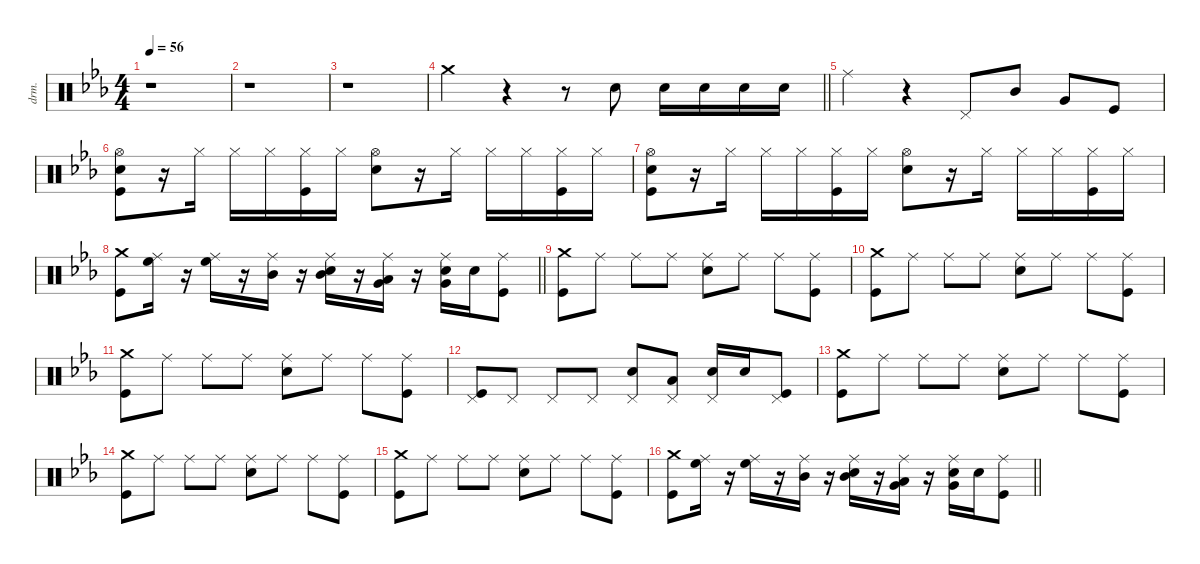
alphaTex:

\defaultSystemsLayout 4
\hideDynamics
\bracketExtendMode groupsimilarinstruments
\otherSystemsTrackNameOrientation horizontal
\track ("Percussion" "drm.") {instrument percussion}
\staff {score}
\articulation defaults
\ts (4 4)
\tempo 56
\clef neutral
\ks cminor
r.1{dy f beam Down} |
r.1{beam Down} |
r.1{beam Down} |
\barLineRight lightlight "Crash medium (hit)"{acc forcenatural}.4{beam Down}
r.4{beam Down} r.8{beam Down} "Snare (hit) 2"{acc forcenatural}.8{beam Down} "Snare (hit) 2"{acc forcenatural}.16{beam Down} "Snare (hit) 2"{acc forcenatural}.16{beam Down} "Snare (hit) 2"{acc forcenatural}.16{beam Down} "Snare (hit) 2"{acc forcenatural}.16{beam Down} |
"Ride (middle)"{acc forcenatural}.4{beam Down} r.4{beam Down} "Pedal Hi-Hat (hit)"{acc forcenatural}.8{beam Up} "Mid Tom (hit)"{acc forcenatural}.8{beam Up} "Very Low Tom (hit)"{acc forcenatural}.8{beam Up} "Kick (hit)"{acc forcenatural}.8{beam Up} |
("Hi-Hat (open)"{acc forcenatural} "Kick (hit)"{acc forcenatural} "Snare (hit) 2"{acc forcenatural}).8{beam Down} r.16{beam Down} "Hi-Hat (closed)"{acc forcenatural}.16{beam Down} "Hi-Hat (closed)"{acc forcenatural}.16{beam Down} "Hi-Hat (closed)"{acc forcenatural}.16{beam Down} ("Kick (hit)"{acc forcenatural} "Hi-Hat (closed)"{acc forcenatural}).16{beam Down} "Hi-Hat (closed)"{acc forcenatural}.16{beam Down} ("Snare (hit) 2"{acc forcenatural} "Hi-Hat (open)"{acc forcenatural}).8{beam Down} r.16{beam Down} "Hi-Hat (closed)"{acc forcenatural}.16{beam Down} "Hi-Hat (closed)"{acc forcenatural}.16{beam Down} "Hi-Hat (closed)"{acc forcenatural}.16{beam Down} ("Kick (hit)"{acc forcenatural} "Hi-Hat (closed)"{acc forcenatural}).16{beam Down} "Hi-Hat (closed)"{acc forcenatural}.16{beam Down} |
("Hi-Hat (open)"{acc forcenatural} "Kick (hit)"{acc forcenatural} "Snare (hit) 2"{acc forcenatural}).8{beam Down} r.16{beam Down} "Hi-Hat (closed)"{acc forcenatural}.16{beam Down} "Hi-Hat (closed)"{acc forcenatural}.16{beam Down} "Hi-Hat (closed)"{acc forcenatural}.16{beam Down} ("Kick (hit)"{acc forcenatural} "Hi-Hat (closed)"{acc forcenatural}).16{beam Down} "Hi-Hat (closed)"{acc forcenatural}.16{beam Down} ("Snare (hit) 2"{acc forcenatural} "Hi-Hat (open)"{acc forcenatural}).8{beam Down} r.16{beam Down} "Hi-Hat (closed)"{acc forcenatural}.16{beam Down} "Hi-Hat (closed)"{acc forcenatural}.16{beam Down} "Hi-Hat (closed)"{acc forcenatural}.16{beam Down} ("Kick (hit)"{acc forcenatural} "Hi-Hat (closed)"{acc forcenatural}).16{beam Down} "Hi-Hat (closed)"{acc forcenatural}.16{beam Down} |
\barLineRight lightlight
("Crash medium (hit)"{acc forcenatural} "Kick (hit)"{acc forcenatural}).8{beam Down} ("High Floor Tom (hit)"{acc forcenatural} "Ride (middle)"{acc forcenatural}).16{beam Down} r.16{beam Down} ("High Floor Tom (hit)"{acc forcenatural} "Ride (middle)"{acc forcenatural}).16{beam Down} r.16{beam Down} ("Mid Tom (hit)"{acc forcenatural} "Ride (middle)"{acc forcenatural}).16{beam Down} r.16{beam Down} ("Mid Tom (hit)"{acc forcenatural} "Snare (hit) 2"{acc forcenatural} "Ride (middle)"{acc forcenatural}).16{beam Down} r.16{beam Down} ("Very Low Tom (hit)"{acc forcenatural} "Low Floor Tom (hit)"{acc forcenatural} "Ride (middle)"{acc forcenatural}).16{beam Down} r.16{beam Down} ("Very Low Tom (hit)"{acc forcenatural} "Snare (hit) 2"{acc forcenatural} "Ride (middle)"{acc forcenatural}).16{beam Down} "Snare (hit) 2"{acc forcenatural}.16{beam Down} ("Kick (hit)"{acc forcenatural} "Ride (middle)"{acc forcenatural}).8{beam Down} |
("Crash medium (hit)"{acc forcenatural} "Kick (hit)"{acc forcenatural}).8{beam Down} "Ride (middle)"{acc forcenatural}.8{beam Down} "Ride (middle)"{acc forcenatural}.8{beam Down} "Ride (middle)"{acc forcenatural}.8{beam Down} ("Snare (hit) 2"{acc forcenatural} "Ride (middle)"{acc forcenatural}).8{beam Down} "Ride (middle)"{acc forcenatural}.8{beam Down} "Ride (middle)"{acc forcenatural}.8{beam Down} ("Kick (hit)"{acc forcenatural} "Ride (middle)"{acc forcenatural}).8{beam Down} |
("Crash medium (hit)"{acc forcenatural} "Kick (hit)"{acc forcenatural}).8{beam Down} "Ride (middle)"{acc forcenatural}.8{beam Down} "Ride (middle)"{acc forcenatural}.8{beam Down} "Ride (middle)"{acc forcenatural}.8{beam Down} ("Snare (hit) 2"{acc forcenatural} "Ride (middle)"{acc forcenatural}).8{beam Down} "Ride (middle)"{acc forcenatural}.8{beam Down} "Ride (middle)"{acc forcenatural}.8{beam Down} ("Kick (hit)"{acc forcenatural} "Ride (middle)"{acc forcenatural}).8{beam Down} |
("Crash medium (hit)"{acc forcenatural} "Kick (hit)"{acc forcenatural}).8{beam Down} "Ride (middle)"{acc forcenatural}.8{beam Down} "Ride (middle)"{acc forcenatural}.8{beam Down} "Ride (middle)"{acc forcenatural}.8{beam Down} ("Snare (hit) 2"{acc forcenatural} "Ride (middle)"{acc forcenatural}).8{beam Down} "Ride (middle)"{acc forcenatural}.8{beam Down} "Ride (middle)"{acc forcenatural}.8{beam Down} ("Kick (hit)"{acc forcenatural} "Ride (middle)"{acc forcenatural}).8{beam Down} |
("Pedal Hi-Hat (hit)"{acc forcenatural} "Kick (hit)"{acc forcenatural}).8{beam Up} "Pedal Hi-Hat (hit)"{acc forcenatural}.8{beam Up} "Pedal Hi-Hat (hit)"{acc forcenatural}.8{beam Up} "Pedal Hi-Hat (hit)"{acc forcenatural}.8{beam Up} ("Snare (hit) 2"{acc forcenatural} "Pedal Hi-Hat (hit)"{acc forcenatural}).8{beam Up} ("Low Floor Tom (hit)"{acc forcenatural} "Pedal Hi-Hat (hit)"{acc forcenatural}).8{beam Up} ("Snare (hit) 2"{acc forcenatural} "Pedal Hi-Hat (hit)"{acc forcenatural}).16{beam Up} "Snare (hit) 2"{acc forcenatural}.16{beam Up} ("Kick (hit)"{acc forcenatural} "Pedal Hi-Hat (hit)"{acc forcenatural}).8{beam Up} |
("Crash medium (hit)"{acc forcenatural} "Kick (hit)"{acc forcenatural}).8{beam Down} "Ride (middle)"{acc forcenatural}.8{beam Down} "Ride (middle)"{acc forcenatural}.8{beam Down} "Ride (middle)"{acc forcenatural}.8{beam Down} ("Snare (hit) 2"{acc forcenatural} "Ride (middle)"{acc forcenatural}).8{beam Down} "Ride (middle)"{acc forcenatural}.8{beam Down} "Ride (middle)"{acc forcenatural}.8{beam Down} ("Kick (hit)"{acc forcenatural} "Ride (middle)"{acc forcenatural}).8{beam Down} |
("Crash medium (hit)"{acc forcenatural} "Kick (hit)"{acc forcenatural}).8{beam Down} "Ride (middle)"{acc forcenatural}.8{beam Down} "Ride (middle)"{acc forcenatural}.8{beam Down} "Ride (middle)"{acc forcenatural}.8{beam Down} ("Snare (hit) 2"{acc forcenatural} "Ride (middle)"{acc forcenatural}).8{beam Down} "Ride (middle)"{acc forcenatural}.8{beam Down} "Ride (middle)"{acc forcenatural}.8{beam Down} ("Kick (hit)"{acc forcenatural} "Ride (middle)"{acc forcenatural}).8{beam Down} |
("Crash medium (hit)"{acc forcenatural} "Kick (hit)"{acc forcenatural}).8{beam Down} "Ride (middle)"{acc forcenatural}.8{beam Down} "Ride (middle)"{acc forcenatural}.8{beam Down} "Ride (middle)"{acc forcenatural}.8{beam Down} ("Snare (hit) 2"{acc forcenatural} "Ride (middle)"{acc forcenatural}).8{beam Down} "Ride (middle)"{acc forcenatural}.8{beam Down} "Ride (middle)"{acc forcenatural}.8{beam Down} ("Kick (hit)"{acc forcenatural} "Ride (middle)"{acc forcenatural}).8{beam Down} |
\barLineRight lightlight
("Crash medium (hit)"{acc forcenatural} "Kick (hit)"{acc forcenatural}).8{beam Down} ("High Floor Tom (hit)"{acc forcenatural} "Ride (middle)"{acc forcenatural}).16{beam Down} r.16{beam Down} ("High Floor Tom (hit)"{acc forcenatural} "Ride (middle)"{acc forcenatural}).16{beam Down} r.16{beam Down} ("Mid Tom (hit)"{acc forcenatural} "Ride (middle)"{acc forcenatural}).16{beam Down} r.16{beam Down} ("Mid Tom (hit)"{acc forcenatural} "Snare (hit) 2"{acc forcenatural} "Ride (middle)"{acc forcenatural}).16{beam Down} r.16{beam Down} ("Very Low Tom (hit)"{acc forcenatural} "Low Floor Tom (hit)"{acc forcenatural} "Ride (middle)"{acc forcenatural}).16{beam Down} r.16{beam Down} ("Very Low Tom (hit)"{acc forcenatural} "Snare (hit) 2"{acc forcenatural} "Ride (middle)"{acc forcenatural}).16{beam Down} "Snare (hit) 2"{acc forcenatural}.16{beam Down} ("Kick (hit)"{acc forcenatural} "Ride (middle)"{acc forcenatural}).8{beam Down}
